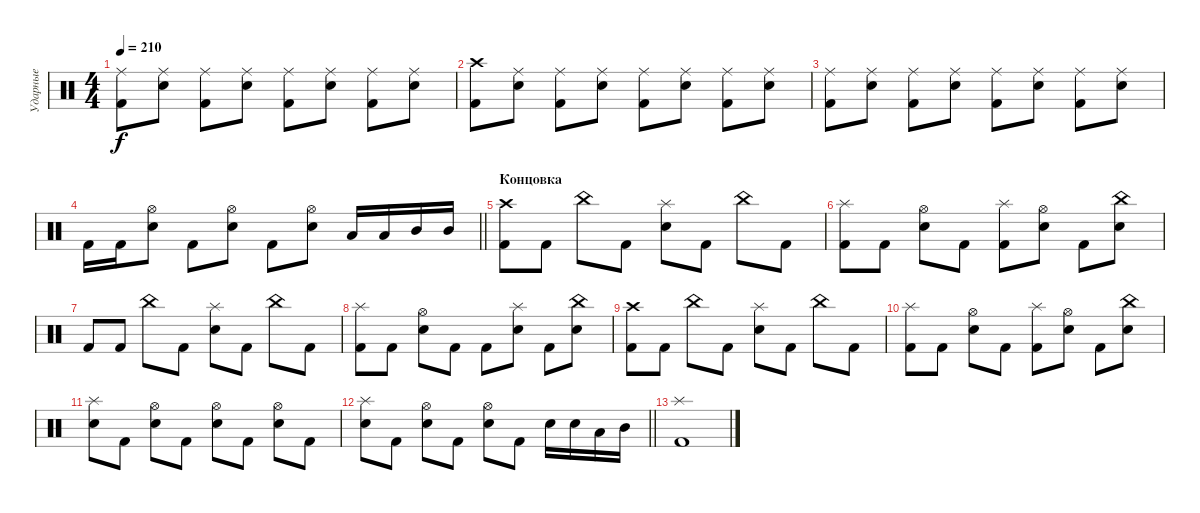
\track ("Ударные" "Ударные") {instrument percussion}
\staff {score}
\articulation defaults
\ts (4 4)
\tempo 210
\clef neutral
\ks c
("Kick (hit) 2" "Ride (middle)").8{dy f} ("Electric Snare (hit)" "Ride (middle)").8 ("Kick (hit) 2" "Ride (middle)").8 ("Electric Snare (hit)" "Ride (middle)").8 ("Kick (hit) 2" "Ride (middle)").8 ("Electric Snare (hit)" "Ride (middle)").8 ("Kick (hit) 2" "Ride (middle)").8 ("Electric Snare (hit)" "Ride (middle)").8 |
("Kick (hit) 2" "Crash high (hit)").8 ("Electric Snare (hit)" "Ride (middle)").8 ("Kick (hit) 2" "Ride (middle)").8 ("Electric Snare (hit)" "Ride (middle)").8 ("Kick (hit) 2" "Ride (middle)").8 ("Electric Snare (hit)" "Ride (middle)").8 ("Kick (hit) 2" "Ride (middle)").8 ("Electric Snare (hit)" "Ride (middle)").8 |
("Kick (hit) 2" "Ride (middle)").8 ("Electric Snare (hit)" "Ride (middle)").8 ("Kick (hit) 2" "Ride (middle)").8 ("Electric Snare (hit)" "Ride (middle)").8 ("Kick (hit) 2" "Ride (middle)").8 ("Electric Snare (hit)" "Ride (middle)").8 ("Kick (hit) 2" "Ride (middle)").8 ("Electric Snare (hit)" "Ride (middle)").8 |
\barLineRight lightlight "Kick (hit) 2".16 "Kick (hit) 2".16
("Electric Snare (hit)" "Hi-Hat (open)").8 "Kick (hit) 2".8 ("Electric Snare (hit)" "Hi-Hat (open)").8 "Kick (hit) 2".8 ("Electric Snare (hit)" "Hi-Hat (open)").8 "Low Tom (hit)".16 "Low Tom (hit)".16 "Mid Tom (hit)".16 "Mid Tom (hit)".16 |
\section ("" "Концовка")
("Kick (hit) 2" "Crash high (hit)").8 "Kick (hit) 2".8 "China (hit)".8 "Kick (hit) 2".8 ("Electric Snare (hit)" "Splash (hit)").8 "Kick (hit) 2".8 "China (hit)".8 "Kick (hit) 2".8 |
("Kick (hit) 2" "Splash (hit)").8 "Kick (hit) 2".8 ("Electric Snare (hit)" "Hi-Hat (open)").8 "Kick (hit) 2".8 ("Kick (hit) 2" "Splash (hit)").8 ("Electric Snare (hit)" "Hi-Hat (open)").8 "Kick (hit) 2".8 ("Electric Snare (hit)" "China (hit)").8 |
"Kick (hit) 2".8 "Kick (hit) 2".8 "China (hit)".8 "Kick (hit) 2".8 ("Electric Snare (hit)" "Splash (hit)").8 "Kick (hit) 2".8 "China (hit)".8 "Kick (hit) 2".8 |
("Kick (hit) 2" "Splash (hit)").8 "Kick (hit) 2".8 ("Electric Snare (hit)" "Hi-Hat (open)").8 "Kick (hit) 2".8 "Kick (hit) 2".8 ("Electric Snare (hit)" "Splash (hit)").8 "Kick (hit) 2".8 ("Electric Snare (hit)" "China (hit)").8 |
("Kick (hit) 2" "Crash high (hit)").8 "Kick (hit) 2".8 "China (hit)".8 "Kick (hit) 2".8 ("Electric Snare (hit)" "Splash (hit)").8 "Kick (hit) 2".8 "China (hit)".8 "Kick (hit) 2".8 |
("Kick (hit) 2" "Splash (hit)").8 "Kick (hit) 2".8 ("Electric Snare (hit)" "Hi-Hat (open)").8 "Kick (hit) 2".8 ("Kick (hit) 2" "Splash (hit)").8 ("Electric Snare (hit)" "Hi-Hat (open)").8 "Kick (hit) 2".8 ("Electric Snare (hit)" "China (hit)").8 |
("Electric Snare (hit)" "Splash (hit)").8 "Kick (hit) 2".8 ("Electric Snare (hit)" "Hi-Hat (open)").8 "Kick (hit) 2".8 ("Electric Snare (hit)" "Hi-Hat (open)").8 "Kick (hit) 2".8 ("Electric Snare (hit)" "Hi-Hat (open)").8 "Kick (hit) 2".8 |
\barLineRight lightlight
("Electric Snare (hit)" "Splash (hit)").8 "Kick (hit) 2".8 ("Electric Snare (hit)" "Hi-Hat (open)").8 "Kick (hit) 2".8 ("Electric Snare (hit)" "Hi-Hat (open)").8 "Kick (hit) 2".8 "Electric Snare (hit)".16 "Electric Snare (hit)".16 "Low Tom (hit)".16 "Mid Tom (hit)".16 |
("Kick (hit) 2" "Splash (hit)").1
